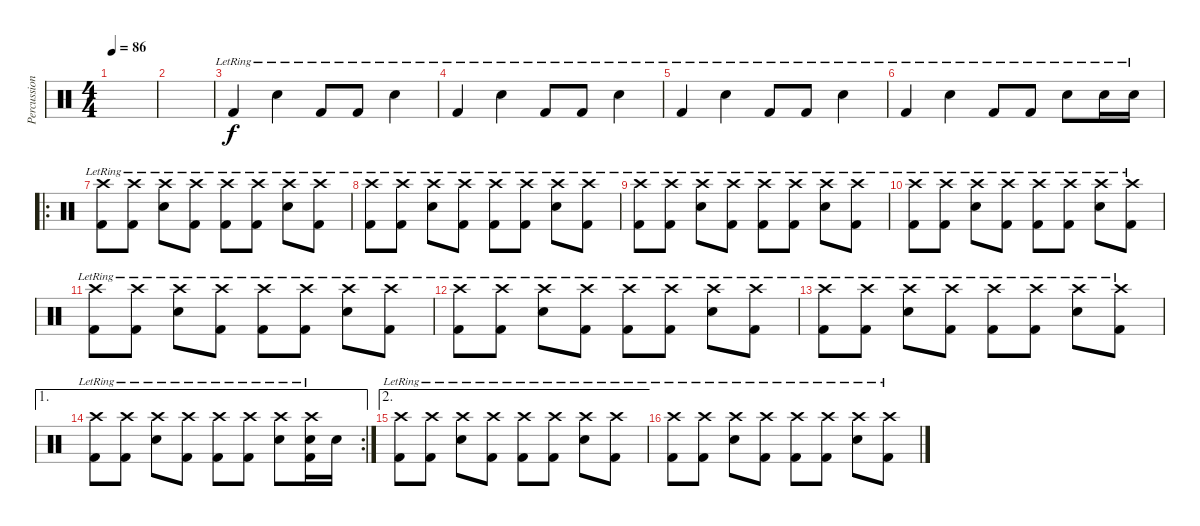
\track ("Percussion" "Percussion") {instrument percussion}
\staff {score}
\articulation defaults
\ts (4 4)
\tempo 86
\clef neutral
\ks c
|
|
"Kick (hit) 2"{lr}.4 "Electric Snare (hit)"{lr}.4 "Kick (hit) 2"{lr}.8 "Kick (hit) 2"{lr}.8 "Electric Snare (hit)"{lr}.4 |
"Kick (hit) 2"{lr}.4 "Electric Snare (hit)"{lr}.4 "Kick (hit) 2"{lr}.8 "Kick (hit) 2"{lr}.8 "Electric Snare (hit)"{lr}.4 |
"Kick (hit) 2"{lr}.4 "Electric Snare (hit)"{lr}.4 "Kick (hit) 2"{lr}.8 "Kick (hit) 2"{lr}.8 "Electric Snare (hit)"{lr}.4 |
"Kick (hit) 2"{lr}.4 "Electric Snare (hit)"{lr}.4 "Kick (hit) 2"{lr}.8 "Kick (hit) 2"{lr}.8 "Electric Snare (hit)"{lr}.8 "Electric Snare (hit)"{lr}.16 "Electric Snare (hit)"{lr}.16 |
\ro
("Crash high (hit)"{lr} "Kick (hit) 2"{lr}).8 ("Crash high (hit)"{lr} "Kick (hit) 2"{lr}).8 ("Crash high (hit)"{lr} "Electric Snare (hit)"{lr}).8 ("Crash high (hit)"{lr} "Kick (hit) 2"{lr}).8 ("Crash high (hit)"{lr} "Kick (hit) 2"{lr}).8 ("Crash high (hit)"{lr} "Kick (hit) 2"{lr}).8 ("Crash high (hit)"{lr} "Electric Snare (hit)"{lr}).8 ("Crash high (hit)"{lr} "Kick (hit) 2"{lr}).8 |
("Crash high (hit)"{lr} "Kick (hit) 2"{lr}).8 ("Crash high (hit)"{lr} "Kick (hit) 2"{lr}).8 ("Crash high (hit)"{lr} "Electric Snare (hit)"{lr}).8 ("Crash high (hit)"{lr} "Kick (hit) 2"{lr}).8 ("Crash high (hit)"{lr} "Kick (hit) 2"{lr}).8 ("Crash high (hit)"{lr} "Kick (hit) 2"{lr}).8 ("Crash high (hit)"{lr} "Electric Snare (hit)"{lr}).8 ("Crash high (hit)"{lr} "Kick (hit) 2"{lr}).8 |
("Crash high (hit)"{lr} "Kick (hit) 2"{lr}).8 ("Crash high (hit)"{lr} "Kick (hit) 2"{lr}).8 ("Crash high (hit)"{lr} "Electric Snare (hit)"{lr}).8 ("Crash high (hit)"{lr} "Kick (hit) 2"{lr}).8 ("Crash high (hit)"{lr} "Kick (hit) 2"{lr}).8 ("Crash high (hit)"{lr} "Kick (hit) 2"{lr}).8 ("Crash high (hit)"{lr} "Electric Snare (hit)"{lr}).8 ("Crash high (hit)"{lr} "Kick (hit) 2"{lr}).8 |
("Crash high (hit)"{lr} "Kick (hit) 2"{lr}).8 ("Crash high (hit)"{lr} "Kick (hit) 2"{lr}).8 ("Crash high (hit)"{lr} "Electric Snare (hit)"{lr}).8 ("Crash high (hit)"{lr} "Kick (hit) 2"{lr}).8 ("Crash high (hit)"{lr} "Kick (hit) 2"{lr}).8 ("Crash high (hit)"{lr} "Kick (hit) 2"{lr}).8 ("Crash high (hit)"{lr} "Electric Snare (hit)"{lr}).8 ("Crash high (hit)"{lr} "Kick (hit) 2"{lr}).8 |
("Crash high (hit)"{lr} "Kick (hit) 2"{lr}).8 ("Crash high (hit)"{lr} "Kick (hit) 2"{lr}).8 ("Crash high (hit)"{lr} "Electric Snare (hit)"{lr}).8 ("Crash high (hit)"{lr} "Kick (hit) 2"{lr}).8 ("Crash high (hit)"{lr} "Kick (hit) 2"{lr}).8 ("Crash high (hit)"{lr} "Kick (hit) 2"{lr}).8 ("Crash high (hit)"{lr} "Electric Snare (hit)"{lr}).8 ("Crash high (hit)"{lr} "Kick (hit) 2"{lr}).8 |
("Crash high (hit)"{lr} "Kick (hit) 2"{lr}).8 ("Crash high (hit)"{lr} "Kick (hit) 2"{lr}).8 ("Crash high (hit)"{lr} "Electric Snare (hit)"{lr}).8 ("Crash high (hit)"{lr} "Kick (hit) 2"{lr}).8 ("Crash high (hit)"{lr} "Kick (hit) 2"{lr}).8 ("Crash high (hit)"{lr} "Kick (hit) 2"{lr}).8 ("Crash high (hit)"{lr} "Electric Snare (hit)"{lr}).8 ("Crash high (hit)"{lr} "Kick (hit) 2"{lr}).8 |
("Crash high (hit)"{lr} "Kick (hit) 2"{lr}).8 ("Crash high (hit)"{lr} "Kick (hit) 2"{lr}).8 ("Crash high (hit)"{lr} "Electric Snare (hit)"{lr}).8 ("Crash high (hit)"{lr} "Kick (hit) 2"{lr}).8 ("Crash high (hit)"{lr} "Kick (hit) 2"{lr}).8 ("Crash high (hit)"{lr} "Kick (hit) 2"{lr}).8 ("Crash high (hit)"{lr} "Electric Snare (hit)"{lr}).8 ("Crash high (hit)"{lr} "Kick (hit) 2"{lr}).8 |
\ae 1
\rc 2
("Crash high (hit)"{lr} "Kick (hit) 2"{lr}).8 ("Crash high (hit)"{lr} "Kick (hit) 2"{lr}).8 ("Crash high (hit)"{lr} "Electric Snare (hit)"{lr}).8 ("Crash high (hit)"{lr} "Kick (hit) 2"{lr}).8 ("Crash high (hit)"{lr} "Kick (hit) 2"{lr}).8 ("Crash high (hit)" "Kick (hit) 2"{lr}).8 ("Crash high (hit)"{lr} "Electric Snare (hit)"{lr}).8 ("Crash high (hit)"{lr} "Electric Snare (hit)" "Kick (hit) 2"{lr}).16 "Electric Snare (hit)".16 |
\ae 2
("Crash high (hit)"{lr} "Kick (hit) 2"{lr}).8 ("Crash high (hit)"{lr} "Kick (hit) 2"{lr}).8 ("Crash high (hit)"{lr} "Electric Snare (hit)"{lr}).8 ("Crash high (hit)"{lr} "Kick (hit) 2"{lr}).8 ("Crash high (hit)"{lr} "Kick (hit) 2"{lr}).8 ("Crash high (hit)"{lr} "Kick (hit) 2"{lr}).8 ("Crash high (hit)"{lr} "Electric Snare (hit)"{lr}).8 ("Crash high (hit)"{lr} "Kick (hit) 2"{lr}).8 |
("Crash high (hit)"{lr} "Kick (hit) 2"{lr}).8 ("Crash high (hit)"{lr} "Kick (hit) 2"{lr}).8 ("Crash high (hit)"{lr} "Electric Snare (hit)"{lr}).8 ("Crash high (hit)"{lr} "Kick (hit) 2"{lr}).8 ("Crash high (hit)"{lr} "Kick (hit) 2"{lr}).8 ("Crash high (hit)"{lr} "Kick (hit) 2"{lr}).8 ("Crash high (hit)"{lr} "Electric Snare (hit)"{lr}).8 ("Crash high (hit)"{lr} "Kick (hit) 2"{lr}).8
